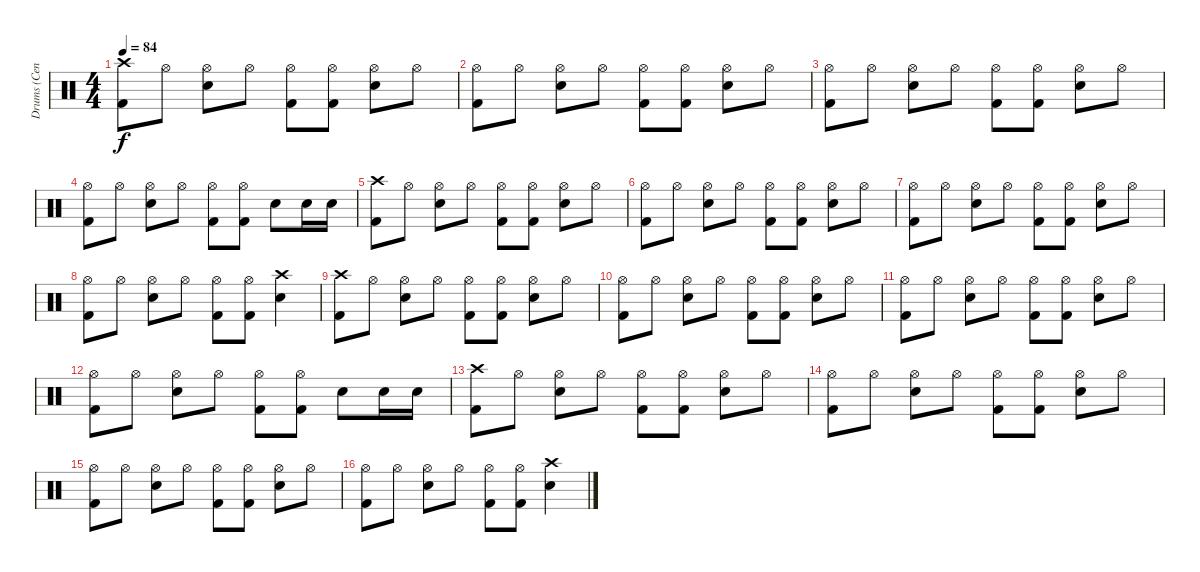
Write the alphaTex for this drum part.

\track ("Drums (Cenk)" "Drums (Cen") {instrument percussion}
\staff {score}
\articulation defaults
\ts (4 4)
\tempo 84
\clef neutral
\ks c
("Crash high (hit)" "Kick (hit) 2").8{dy f} "Hi-Hat (open)".8 ("Hi-Hat (open)" "Snare (hit) 2").8 "Hi-Hat (open)".8 ("Hi-Hat (open)" "Kick (hit) 2").8 ("Hi-Hat (open)" "Kick (hit) 2").8 ("Hi-Hat (open)" "Snare (hit) 2").8 "Hi-Hat (open)".8 |
("Hi-Hat (open)" "Kick (hit) 2").8 "Hi-Hat (open)".8 ("Hi-Hat (open)" "Snare (hit) 2").8 "Hi-Hat (open)".8 ("Hi-Hat (open)" "Kick (hit) 2").8 ("Hi-Hat (open)" "Kick (hit) 2").8 ("Hi-Hat (open)" "Snare (hit) 2").8 "Hi-Hat (open)".8 |
("Hi-Hat (open)" "Kick (hit) 2").8 "Hi-Hat (open)".8 ("Hi-Hat (open)" "Snare (hit) 2").8 "Hi-Hat (open)".8 ("Hi-Hat (open)" "Kick (hit) 2").8 ("Hi-Hat (open)" "Kick (hit) 2").8 ("Hi-Hat (open)" "Snare (hit) 2").8 "Hi-Hat (open)".8 |
("Hi-Hat (open)" "Kick (hit) 2").8 "Hi-Hat (open)".8 ("Hi-Hat (open)" "Snare (hit) 2").8 "Hi-Hat (open)".8 ("Hi-Hat (open)" "Kick (hit) 2").8 ("Hi-Hat (open)" "Kick (hit) 2").8 "Snare (hit) 2".8 "Snare (hit) 2".16 "Snare (hit) 2".16 |
("Crash high (hit)" "Kick (hit) 2").8 "Hi-Hat (open)".8 ("Hi-Hat (open)" "Snare (hit) 2").8 "Hi-Hat (open)".8 ("Hi-Hat (open)" "Kick (hit) 2").8 ("Hi-Hat (open)" "Kick (hit) 2").8 ("Hi-Hat (open)" "Snare (hit) 2").8 "Hi-Hat (open)".8 |
("Hi-Hat (open)" "Kick (hit) 2").8 "Hi-Hat (open)".8 ("Hi-Hat (open)" "Snare (hit) 2").8 "Hi-Hat (open)".8 ("Hi-Hat (open)" "Kick (hit) 2").8 ("Hi-Hat (open)" "Kick (hit) 2").8 ("Hi-Hat (open)" "Snare (hit) 2").8 "Hi-Hat (open)".8 |
("Hi-Hat (open)" "Kick (hit) 2").8 "Hi-Hat (open)".8 ("Hi-Hat (open)" "Snare (hit) 2").8 "Hi-Hat (open)".8 ("Hi-Hat (open)" "Kick (hit) 2").8 ("Hi-Hat (open)" "Kick (hit) 2").8 ("Hi-Hat (open)" "Snare (hit) 2").8 "Hi-Hat (open)".8 |
("Hi-Hat (open)" "Kick (hit) 2").8 "Hi-Hat (open)".8 ("Hi-Hat (open)" "Snare (hit) 2").8 "Hi-Hat (open)".8 ("Hi-Hat (open)" "Kick (hit) 2").8 ("Hi-Hat (open)" "Kick (hit) 2").8 ("Crash high (hit)" "Snare (hit) 2").4 |
("Crash high (hit)" "Kick (hit) 2").8 "Hi-Hat (open)".8 ("Hi-Hat (open)" "Snare (hit) 2").8 "Hi-Hat (open)".8 ("Hi-Hat (open)" "Kick (hit) 2").8 ("Hi-Hat (open)" "Kick (hit) 2").8 ("Hi-Hat (open)" "Snare (hit) 2").8 "Hi-Hat (open)".8 |
("Hi-Hat (open)" "Kick (hit) 2").8 "Hi-Hat (open)".8 ("Hi-Hat (open)" "Snare (hit) 2").8 "Hi-Hat (open)".8 ("Hi-Hat (open)" "Kick (hit) 2").8 ("Hi-Hat (open)" "Kick (hit) 2").8 ("Hi-Hat (open)" "Snare (hit) 2").8 "Hi-Hat (open)".8 |
("Hi-Hat (open)" "Kick (hit) 2").8 "Hi-Hat (open)".8 ("Hi-Hat (open)" "Snare (hit) 2").8 "Hi-Hat (open)".8 ("Hi-Hat (open)" "Kick (hit) 2").8 ("Hi-Hat (open)" "Kick (hit) 2").8 ("Hi-Hat (open)" "Snare (hit) 2").8 "Hi-Hat (open)".8 |
("Hi-Hat (open)" "Kick (hit) 2").8 "Hi-Hat (open)".8 ("Hi-Hat (open)" "Snare (hit) 2").8 "Hi-Hat (open)".8 ("Hi-Hat (open)" "Kick (hit) 2").8 ("Hi-Hat (open)" "Kick (hit) 2").8 "Snare (hit) 2".8 "Snare (hit) 2".16 "Snare (hit) 2".16 |
("Crash high (hit)" "Kick (hit) 2").8 "Hi-Hat (open)".8 ("Hi-Hat (open)" "Snare (hit) 2").8 "Hi-Hat (open)".8 ("Hi-Hat (open)" "Kick (hit) 2").8 ("Hi-Hat (open)" "Kick (hit) 2").8 ("Hi-Hat (open)" "Snare (hit) 2").8 "Hi-Hat (open)".8 |
("Hi-Hat (open)" "Kick (hit) 2").8 "Hi-Hat (open)".8 ("Hi-Hat (open)" "Snare (hit) 2").8 "Hi-Hat (open)".8 ("Hi-Hat (open)" "Kick (hit) 2").8 ("Hi-Hat (open)" "Kick (hit) 2").8 ("Hi-Hat (open)" "Snare (hit) 2").8 "Hi-Hat (open)".8 |
("Hi-Hat (open)" "Kick (hit) 2").8 "Hi-Hat (open)".8 ("Hi-Hat (open)" "Snare (hit) 2").8 "Hi-Hat (open)".8 ("Hi-Hat (open)" "Kick (hit) 2").8 ("Hi-Hat (open)" "Kick (hit) 2").8 ("Hi-Hat (open)" "Snare (hit) 2").8 "Hi-Hat (open)".8 |
("Hi-Hat (open)" "Kick (hit) 2").8 "Hi-Hat (open)".8 ("Hi-Hat (open)" "Snare (hit) 2").8 "Hi-Hat (open)".8 ("Hi-Hat (open)" "Kick (hit) 2").8 ("Hi-Hat (open)" "Kick (hit) 2").8 ("Crash high (hit)" "Snare (hit) 2").4
